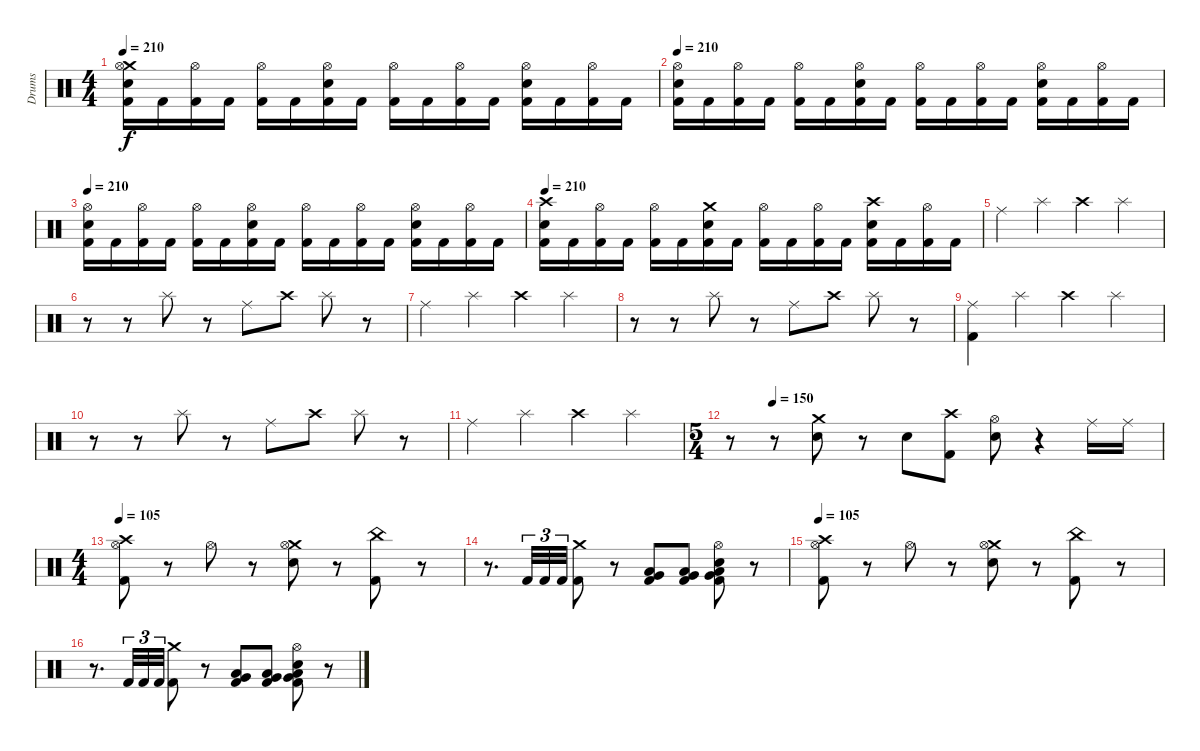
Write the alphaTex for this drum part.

\track ("Drums" "Drums") {instrument percussion}
\staff {score}
\articulation defaults
\ts (4 4)
\tempo 210
\clef neutral
\ks c
("Crash medium (hit)" "Hi-Hat (open)" "Electric Snare (hit)" "Kick (hit) 2").16{dy f} "Kick (hit) 2".16 ("Hi-Hat (open)" "Kick (hit) 2").16 "Kick (hit) 2".16 ("Hi-Hat (open)" "Kick (hit) 2").16 "Kick (hit) 2".16 ("Hi-Hat (open)" "Electric Snare (hit)" "Kick (hit) 2").16 "Kick (hit) 2".16 ("Hi-Hat (open)" "Kick (hit) 2").16 "Kick (hit) 2".16 ("Hi-Hat (open)" "Kick (hit) 2").16 "Kick (hit) 2".16 ("Hi-Hat (open)" "Electric Snare (hit)" "Kick (hit) 2").16 "Kick (hit) 2".16 ("Hi-Hat (open)" "Kick (hit) 2").16 "Kick (hit) 2".16 |
\tempo 210
("Hi-Hat (open)" "Electric Snare (hit)" "Kick (hit) 2").16 "Kick (hit) 2".16 ("Hi-Hat (open)" "Kick (hit) 2").16 "Kick (hit) 2".16 ("Hi-Hat (open)" "Kick (hit) 2").16 "Kick (hit) 2".16 ("Hi-Hat (open)" "Electric Snare (hit)" "Kick (hit) 2").16 "Kick (hit) 2".16 ("Hi-Hat (open)" "Kick (hit) 2").16 "Kick (hit) 2".16 ("Hi-Hat (open)" "Kick (hit) 2").16 "Kick (hit) 2".16 ("Hi-Hat (open)" "Electric Snare (hit)" "Kick (hit) 2").16 "Kick (hit) 2".16 ("Hi-Hat (open)" "Kick (hit) 2").16 "Kick (hit) 2".16 |
\tempo 210
("Hi-Hat (open)" "Electric Snare (hit)" "Kick (hit) 2").16 "Kick (hit) 2".16 ("Hi-Hat (open)" "Kick (hit) 2").16 "Kick (hit) 2".16 ("Hi-Hat (open)" "Kick (hit) 2").16 "Kick (hit) 2".16 ("Hi-Hat (open)" "Electric Snare (hit)" "Kick (hit) 2").16 "Kick (hit) 2".16 ("Hi-Hat (open)" "Kick (hit) 2").16 "Kick (hit) 2".16 ("Hi-Hat (open)" "Kick (hit) 2").16 "Kick (hit) 2".16 ("Hi-Hat (open)" "Electric Snare (hit)" "Kick (hit) 2").16 "Kick (hit) 2".16 ("Hi-Hat (open)" "Kick (hit) 2").16 "Kick (hit) 2".16 |
\tempo 210
("Crash high (hit)" "Electric Snare (hit)" "Kick (hit) 2").16 "Kick (hit) 2".16 ("Hi-Hat (open)" "Kick (hit) 2").16 "Kick (hit) 2".16 ("Hi-Hat (open)" "Kick (hit) 2").16 "Kick (hit) 2".16 ("Crash medium (hit)" "Electric Snare (hit)" "Kick (hit) 2").16 "Kick (hit) 2".16 ("Hi-Hat (open)" "Kick (hit) 2").16 "Kick (hit) 2".16 ("Hi-Hat (open)" "Kick (hit) 2").16 "Kick (hit) 2".16 ("Crash high (hit)" "Electric Snare (hit)" "Kick (hit) 2").16 "Kick (hit) 2".16 ("Hi-Hat (open)" "Kick (hit) 2").16 "Kick (hit) 2".16 |
"Ride (middle)".4 "Splash (hit)".4 "Crash high (hit)".4 "Splash (hit)".4 |
r.8 r.8 "Splash (hit)".8 r.8 "Ride (middle)".8 "Crash high (hit)".8 "Splash (hit)".8 r.8 |
"Ride (middle)".4 "Splash (hit)".4 "Crash high (hit)".4 "Splash (hit)".4 |
r.8 r.8 "Splash (hit)".8 r.8 "Ride (middle)".8 "Crash high (hit)".8 "Splash (hit)".8 r.8 |
("Ride (middle)" "Kick (hit) 2").4 "Splash (hit)".4 "Crash high (hit)".4 "Splash (hit)".4 |
r.8 r.8 "Splash (hit)".8 r.8 "Ride (middle)".8 "Crash high (hit)".8 "Splash (hit)".8 r.8 |
"Ride (middle)".4 "Splash (hit)".4 "Crash high (hit)".4 "Splash (hit)".4 |
\ts (5 4)
\tempo (150 0.1)
r.8 r.8 ("Crash medium (hit)" "Electric Snare (hit)").8 r.8 "Electric Snare (hit)".8 ("Crash high (hit)" "Kick (hit) 2").8 ("Hi-Hat (open)" "Electric Snare (hit)").8 r.4 "Ride (middle)".16 "Ride (middle)".16 |
\ts (4 4)
\tempo 105
("Crash high (hit)" "Hi-Hat (open)" "Kick (hit) 2").8 r.8 "Hi-Hat (open)".8 r.8 ("Crash medium (hit)" "Hi-Hat (open)" "Electric Snare (hit)").8 r.8 ("China (hit)" "Kick (hit) 2").8 r.8 |
r.8{d} "Kick (hit) 2".32{tu (3 2)} "Kick (hit) 2".32{tu (3 2)} "Kick (hit) 2".32{tu (3 2)} ("Crash medium (hit)" "Kick (hit) 2").8 r.8 ("Low Tom (hit)" "Very Low Tom (hit)" "Kick (hit) 2").8 ("Low Tom (hit)" "Very Low Tom (hit)" "Kick (hit) 2").8 ("Hi-Hat (open)" "Electric Snare (hit)" "Low Tom (hit)" "Very Low Tom (hit)" "Kick (hit) 2").8 r.8 |
\tempo 105
("Crash high (hit)" "Hi-Hat (open)" "Kick (hit) 2").8 r.8 "Hi-Hat (open)".8 r.8 ("Crash medium (hit)" "Hi-Hat (open)" "Electric Snare (hit)").8 r.8 ("China (hit)" "Kick (hit) 2").8 r.8 |
r.8{d} "Kick (hit) 2".32{tu (3 2)} "Kick (hit) 2".32{tu (3 2)} "Kick (hit) 2".32{tu (3 2)} ("Crash medium (hit)" "Kick (hit) 2").8 r.8 ("Low Tom (hit)" "Very Low Tom (hit)" "Kick (hit) 2").8 ("Low Tom (hit)" "Very Low Tom (hit)" "Kick (hit) 2").8 ("Hi-Hat (open)" "Electric Snare (hit)" "Low Tom (hit)" "Very Low Tom (hit)" "Kick (hit) 2").8 r.8
